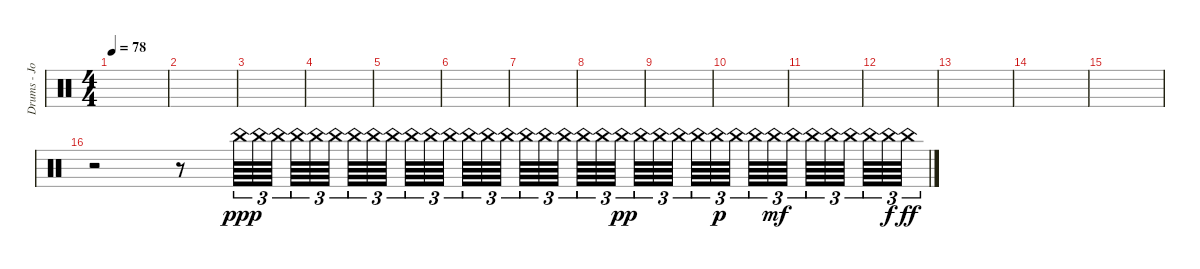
\track ("Drums - Jorg Michael" "Drums - Jo") {instrument percussion}
\staff {score}
\articulation defaults
\ts (4 4)
\tempo 78
\clef neutral
\ks c
|
|
|
|
|
|
|
|
|
|
|
|
|
|
|
r.2 r.8 "China (hit)".64{tu (3 2) dy ppp} "China (hit)".64{tu (3 2)} "China (hit)".64{tu (3 2)} "China (hit)".64{tu (3 2)} "China (hit)".64{tu (3 2)} "China (hit)".64{tu (3 2)} "China (hit)".64{tu (3 2)} "China (hit)".64{tu (3 2)} "China (hit)".64{tu (3 2)} "China (hit)".64{tu (3 2)} "China (hit)".64{tu (3 2)} "China (hit)".64{tu (3 2)} "China (hit)".64{tu (3 2)} "China (hit)".64{tu (3 2)} "China (hit)".64{tu (3 2)} "China (hit)".64{tu (3 2)} "China (hit)".64{tu (3 2)} "China (hit)".64{tu (3 2)} "China (hit)".64{tu (3 2)} "China (hit)".64{tu (3 2)} "China (hit)".64{tu (3 2) dy pp} "China (hit)".64{tu (3 2)} "China (hit)".64{tu (3 2)} "China (hit)".64{tu (3 2)} "China (hit)".64{tu (3 2)} "China (hit)".64{tu (3 2) dy p} "China (hit)".64{tu (3 2)} "China (hit)".64{tu (3 2)} "China (hit)".64{tu (3 2) dy mf} "China (hit)".64{tu (3 2)} "China (hit)".64{tu (3 2)} "China (hit)".64{tu (3 2)} "China (hit)".64{tu (3 2)} "China (hit)".64{tu (3 2)} "China (hit)".64{tu (3 2) dy f} "China (hit)".64{tu (3 2) dy ff}
